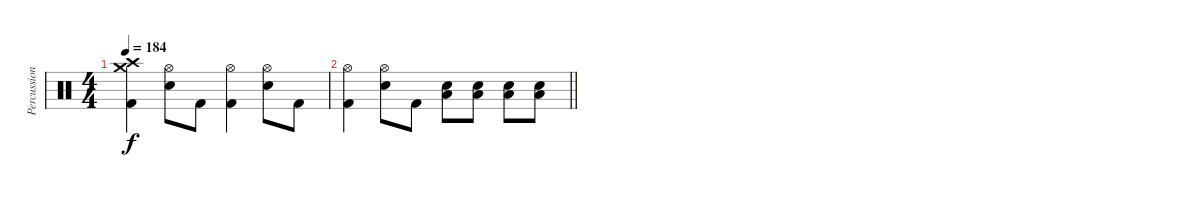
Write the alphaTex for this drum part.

\track ("Percussion" "Percussion") {instrument percussion}
\staff {score}
\articulation defaults
\ts (4 4)
\tempo 184
\clef neutral
\ks c
("Crash high (hit)" "Crash medium (hit)" "Kick (hit) 2").4{dy f} ("Hi-Hat (open)" "Electric Snare (hit)").8 "Kick (hit) 2".8 ("Hi-Hat (open)" "Kick (hit) 2").4 ("Hi-Hat (open)" "Electric Snare (hit)").8 "Kick (hit) 2".8 |
\barLineRight lightlight
("Hi-Hat (open)" "Kick (hit) 2").4 ("Hi-Hat (open)" "Electric Snare (hit)").8 "Kick (hit) 2".8 ("Electric Snare (hit)" "Low Floor Tom (hit)").8 ("Electric Snare (hit)" "Low Floor Tom (hit)").8 ("Electric Snare (hit)" "Low Floor Tom (hit)").8 ("Electric Snare (hit)" "Low Floor Tom (hit)").8
